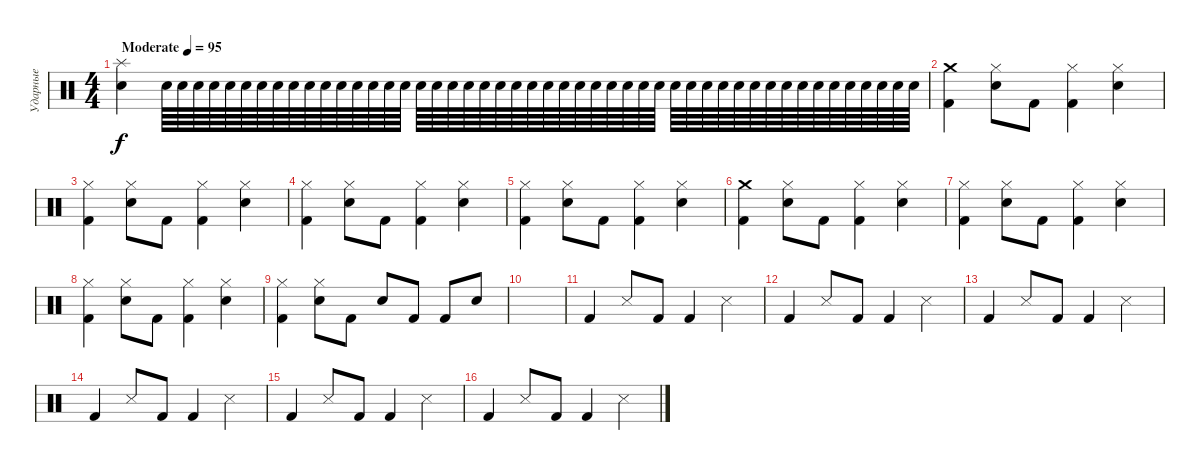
\track ("Ударные" "Ударные") {instrument percussion}
\staff {score}
\articulation defaults
\ts (4 4)
\tempo (95 "Moderate")
\clef neutral
\ks c
("Splash (hit)" "Snare (hit) 2").4{dy f} "Snare (hit) 2".64 "Snare (hit) 2".64 "Snare (hit) 2".64 "Snare (hit) 2".64 "Snare (hit) 2".64 "Snare (hit) 2".64 "Snare (hit) 2".64 "Snare (hit) 2".64 "Snare (hit) 2".64 "Snare (hit) 2".64 "Snare (hit) 2".64 "Snare (hit) 2".64 "Snare (hit) 2".64 "Snare (hit) 2".64 "Snare (hit) 2".64 "Snare (hit) 2".64 "Snare (hit) 2".64 "Snare (hit) 2".64 "Snare (hit) 2".64 "Snare (hit) 2".64 "Snare (hit) 2".64 "Snare (hit) 2".64 "Snare (hit) 2".64 "Snare (hit) 2".64 "Snare (hit) 2".64 "Snare (hit) 2".64 "Snare (hit) 2".64 "Snare (hit) 2".64 "Snare (hit) 2".64 "Snare (hit) 2".64 "Snare (hit) 2".64 "Snare (hit) 2".64 "Snare (hit) 2".64 "Snare (hit) 2".64 "Snare (hit) 2".64 "Snare (hit) 2".64 "Snare (hit) 2".64 "Snare (hit) 2".64 "Snare (hit) 2".64 "Snare (hit) 2".64 "Snare (hit) 2".64 "Snare (hit) 2".64 "Snare (hit) 2".64 "Snare (hit) 2".64 "Snare (hit) 2".64 "Snare (hit) 2".64 "Snare (hit) 2".64 "Snare (hit) 2".64 |
("Crash medium (hit)" "Kick (hit) 2").4 ("Hi-Hat (closed)" "Snare (hit) 2").8 "Kick (hit) 2".8 ("Hi-Hat (closed)" "Kick (hit) 2").4 ("Hi-Hat (closed)" "Snare (hit) 2").4 |
("Hi-Hat (closed)" "Kick (hit) 2").4 ("Hi-Hat (closed)" "Snare (hit) 2").8 "Kick (hit) 2".8 ("Hi-Hat (closed)" "Kick (hit) 2").4 ("Hi-Hat (closed)" "Snare (hit) 2").4 |
("Hi-Hat (closed)" "Kick (hit) 2").4 ("Hi-Hat (closed)" "Snare (hit) 2").8 "Kick (hit) 2".8 ("Hi-Hat (closed)" "Kick (hit) 2").4 ("Hi-Hat (closed)" "Snare (hit) 2").4 |
("Hi-Hat (closed)" "Kick (hit) 2").4 ("Hi-Hat (closed)" "Snare (hit) 2").8 "Kick (hit) 2".8 ("Hi-Hat (closed)" "Kick (hit) 2").4 ("Hi-Hat (closed)" "Snare (hit) 2").4 |
("Crash medium (hit)" "Kick (hit) 2").4 ("Hi-Hat (closed)" "Snare (hit) 2").8 "Kick (hit) 2".8 ("Hi-Hat (closed)" "Kick (hit) 2").4 ("Hi-Hat (closed)" "Snare (hit) 2").4 |
("Hi-Hat (closed)" "Kick (hit) 2").4 ("Hi-Hat (closed)" "Snare (hit) 2").8 "Kick (hit) 2".8 ("Hi-Hat (closed)" "Kick (hit) 2").4 ("Hi-Hat (closed)" "Snare (hit) 2").4 |
("Hi-Hat (closed)" "Kick (hit) 2").4 ("Hi-Hat (closed)" "Snare (hit) 2").8 "Kick (hit) 2".8 ("Hi-Hat (closed)" "Kick (hit) 2").4 ("Hi-Hat (closed)" "Snare (hit) 2").4 |
("Hi-Hat (closed)" "Kick (hit) 2").4 ("Hi-Hat (closed)" "Snare (hit) 2").8 "Kick (hit) 2".8 "Snare (hit) 2".8 "Kick (hit) 2".8 "Kick (hit) 2".8 "Snare (hit) 2".8 |
|
"Kick (hit) 2".4 "Snare (side stick) 3".8 "Kick (hit) 2".8 "Kick (hit) 2".4 "Snare (side stick) 3".4 |
"Kick (hit) 2".4 "Snare (side stick) 3".8 "Kick (hit) 2".8 "Kick (hit) 2".4 "Snare (side stick) 3".4 |
"Kick (hit) 2".4 "Snare (side stick) 3".8 "Kick (hit) 2".8 "Kick (hit) 2".4 "Snare (side stick) 3".4 |
"Kick (hit) 2".4 "Snare (side stick) 3".8 "Kick (hit) 2".8 "Kick (hit) 2".4 "Snare (side stick) 3".4 |
"Kick (hit) 2".4 "Snare (side stick) 3".8 "Kick (hit) 2".8 "Kick (hit) 2".4 "Snare (side stick) 3".4 |
"Kick (hit) 2".4 "Snare (side stick) 3".8 "Kick (hit) 2".8 "Kick (hit) 2".4 "Snare (side stick) 3".4
